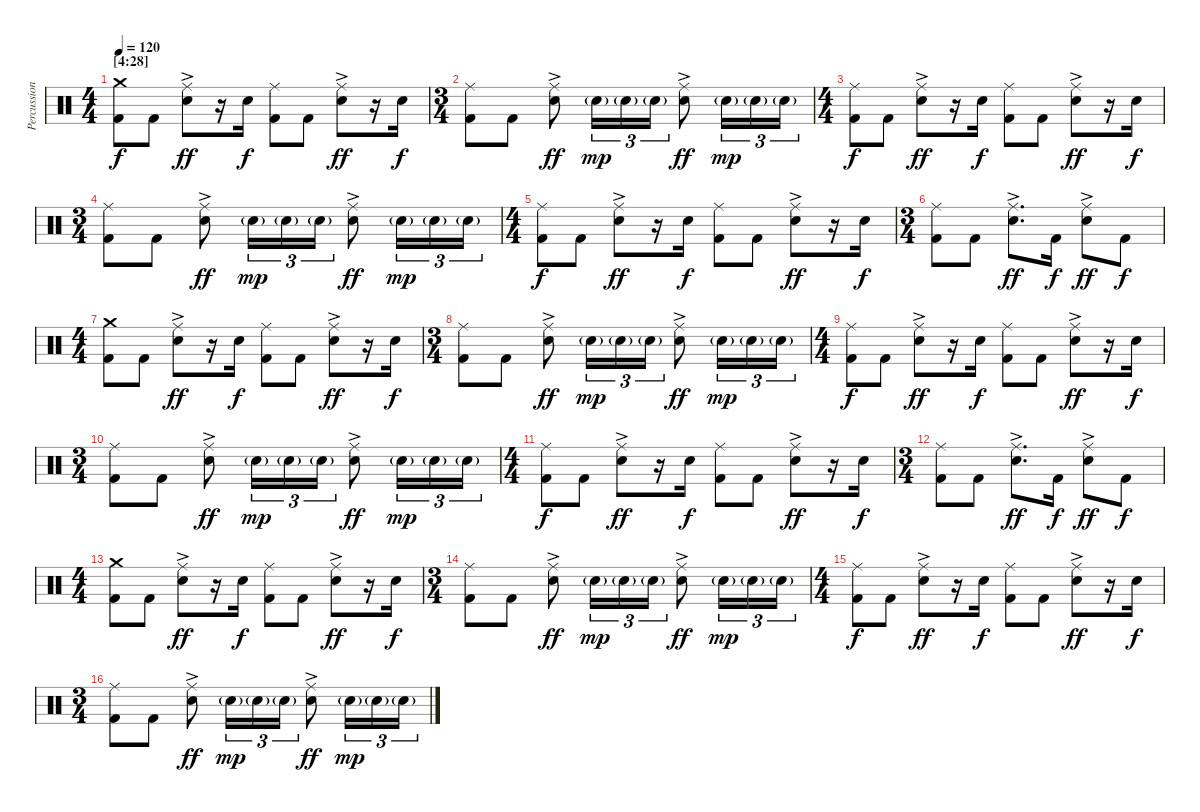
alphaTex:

\track ("Percussion" "Percussion") {instrument percussion}
\staff {score}
\articulation defaults
\ts (4 4)
\section ("" "[4:28]")
\tempo 120
\clef neutral
\ks c
("Crash medium (hit)" "Kick (hit) 2").8{dy f volume 8} "Kick (hit) 2".8 ("Ride (middle)" "Electric Snare (hit)"{ac}).8{dy ff} r.16 "Electric Snare (hit)".16{dy f} ("Ride (middle)" "Kick (hit) 2").8 "Kick (hit) 2".8 ("Ride (middle)" "Electric Snare (hit)"{ac}).8{dy ff} r.16 "Electric Snare (hit)".16{dy f} |
\ts (3 4)
("Ride (middle)" "Kick (hit) 2").8 "Kick (hit) 2".8 ("Ride (middle)" "Electric Snare (hit)"{ac}).8{dy ff} "Electric Snare (hit)"{g}.16{tu (3 2) dy mp} "Electric Snare (hit)"{g}.16{tu (3 2)} "Electric Snare (hit)"{g}.16{tu (3 2)} ("Ride (middle)" "Electric Snare (hit)"{ac}).8{dy ff} "Electric Snare (hit)"{g}.16{tu (3 2) dy mp} "Electric Snare (hit)"{g}.16{tu (3 2)} "Electric Snare (hit)"{g}.16{tu (3 2)} |
\ts (4 4)
("Ride (middle)" "Kick (hit) 2").8{dy f} "Kick (hit) 2".8 ("Ride (middle)" "Electric Snare (hit)"{ac}).8{dy ff} r.16 "Electric Snare (hit)".16{dy f} ("Ride (middle)" "Kick (hit) 2").8 "Kick (hit) 2".8 ("Ride (middle)" "Electric Snare (hit)"{ac}).8{dy ff} r.16 "Electric Snare (hit)".16{dy f} |
\ts (3 4)
("Ride (middle)" "Kick (hit) 2").8 "Kick (hit) 2".8 ("Ride (middle)" "Electric Snare (hit)"{ac}).8{dy ff} "Electric Snare (hit)"{g}.16{tu (3 2) dy mp} "Electric Snare (hit)"{g}.16{tu (3 2)} "Electric Snare (hit)"{g}.16{tu (3 2)} ("Ride (middle)" "Electric Snare (hit)"{ac}).8{dy ff} "Electric Snare (hit)"{g}.16{tu (3 2) dy mp} "Electric Snare (hit)"{g}.16{tu (3 2)} "Electric Snare (hit)"{g}.16{tu (3 2)} |
\ts (4 4)
("Ride (middle)" "Kick (hit) 2").8{dy f} "Kick (hit) 2".8 ("Ride (middle)" "Electric Snare (hit)"{ac}).8{dy ff} r.16 "Electric Snare (hit)".16{dy f} ("Ride (middle)" "Kick (hit) 2").8 "Kick (hit) 2".8 ("Ride (middle)" "Electric Snare (hit)"{ac}).8{dy ff} r.16 "Electric Snare (hit)".16{dy f} |
\ts (3 4)
("Ride (middle)" "Kick (hit) 2").8 "Kick (hit) 2".8 ("Ride (middle)" "Electric Snare (hit)"{ac}).8{d dy ff} "Kick (hit) 2".16{dy f} ("Ride (middle)" "Electric Snare (hit)"{ac}).8{dy ff} "Kick (hit) 2".8{dy f} |
\ts (4 4)
("Crash medium (hit)" "Kick (hit) 2").8 "Kick (hit) 2".8 ("Ride (middle)" "Electric Snare (hit)"{ac}).8{dy ff} r.16 "Electric Snare (hit)".16{dy f} ("Ride (middle)" "Kick (hit) 2").8 "Kick (hit) 2".8 ("Ride (middle)" "Electric Snare (hit)"{ac}).8{dy ff} r.16 "Electric Snare (hit)".16{dy f} |
\ts (3 4)
("Ride (middle)" "Kick (hit) 2").8 "Kick (hit) 2".8 ("Ride (middle)" "Electric Snare (hit)"{ac}).8{dy ff} "Electric Snare (hit)"{g}.16{tu (3 2) dy mp} "Electric Snare (hit)"{g}.16{tu (3 2)} "Electric Snare (hit)"{g}.16{tu (3 2)} ("Ride (middle)" "Electric Snare (hit)"{ac}).8{dy ff} "Electric Snare (hit)"{g}.16{tu (3 2) dy mp} "Electric Snare (hit)"{g}.16{tu (3 2)} "Electric Snare (hit)"{g}.16{tu (3 2)} |
\ts (4 4)
("Ride (middle)" "Kick (hit) 2").8{dy f} "Kick (hit) 2".8 ("Ride (middle)" "Electric Snare (hit)"{ac}).8{dy ff} r.16 "Electric Snare (hit)".16{dy f} ("Ride (middle)" "Kick (hit) 2").8 "Kick (hit) 2".8 ("Ride (middle)" "Electric Snare (hit)"{ac}).8{dy ff} r.16 "Electric Snare (hit)".16{dy f} |
\ts (3 4)
("Ride (middle)" "Kick (hit) 2").8 "Kick (hit) 2".8 ("Ride (middle)" "Electric Snare (hit)"{ac}).8{dy ff} "Electric Snare (hit)"{g}.16{tu (3 2) dy mp} "Electric Snare (hit)"{g}.16{tu (3 2)} "Electric Snare (hit)"{g}.16{tu (3 2)} ("Ride (middle)" "Electric Snare (hit)"{ac}).8{dy ff} "Electric Snare (hit)"{g}.16{tu (3 2) dy mp} "Electric Snare (hit)"{g}.16{tu (3 2)} "Electric Snare (hit)"{g}.16{tu (3 2)} |
\ts (4 4)
("Ride (middle)" "Kick (hit) 2").8{dy f} "Kick (hit) 2".8 ("Ride (middle)" "Electric Snare (hit)"{ac}).8{dy ff} r.16 "Electric Snare (hit)".16{dy f} ("Ride (middle)" "Kick (hit) 2").8 "Kick (hit) 2".8 ("Ride (middle)" "Electric Snare (hit)"{ac}).8{dy ff} r.16 "Electric Snare (hit)".16{dy f} |
\ts (3 4)
("Ride (middle)" "Kick (hit) 2").8 "Kick (hit) 2".8 ("Ride (middle)" "Electric Snare (hit)"{ac}).8{d dy ff} "Kick (hit) 2".16{dy f} ("Ride (middle)" "Electric Snare (hit)"{ac}).8{dy ff} "Kick (hit) 2".8{dy f} |
\ts (4 4)
("Crash medium (hit)" "Kick (hit) 2").8 "Kick (hit) 2".8 ("Ride (middle)" "Electric Snare (hit)"{ac}).8{dy ff} r.16 "Electric Snare (hit)".16{dy f} ("Ride (middle)" "Kick (hit) 2").8 "Kick (hit) 2".8 ("Ride (middle)" "Electric Snare (hit)"{ac}).8{dy ff} r.16 "Electric Snare (hit)".16{dy f} |
\ts (3 4)
("Ride (middle)" "Kick (hit) 2").8 "Kick (hit) 2".8 ("Ride (middle)" "Electric Snare (hit)"{ac}).8{dy ff} "Electric Snare (hit)"{g}.16{tu (3 2) dy mp} "Electric Snare (hit)"{g}.16{tu (3 2)} "Electric Snare (hit)"{g}.16{tu (3 2)} ("Ride (middle)" "Electric Snare (hit)"{ac}).8{dy ff} "Electric Snare (hit)"{g}.16{tu (3 2) dy mp} "Electric Snare (hit)"{g}.16{tu (3 2)} "Electric Snare (hit)"{g}.16{tu (3 2)} |
\ts (4 4)
("Ride (middle)" "Kick (hit) 2").8{dy f} "Kick (hit) 2".8 ("Ride (middle)" "Electric Snare (hit)"{ac}).8{dy ff} r.16 "Electric Snare (hit)".16{dy f} ("Ride (middle)" "Kick (hit) 2").8 "Kick (hit) 2".8 ("Ride (middle)" "Electric Snare (hit)"{ac}).8{dy ff} r.16 "Electric Snare (hit)".16{dy f} |
\ts (3 4)
("Ride (middle)" "Kick (hit) 2").8 "Kick (hit) 2".8 ("Ride (middle)" "Electric Snare (hit)"{ac}).8{dy ff} "Electric Snare (hit)"{g}.16{tu (3 2) dy mp} "Electric Snare (hit)"{g}.16{tu (3 2)} "Electric Snare (hit)"{g}.16{tu (3 2)} ("Ride (middle)" "Electric Snare (hit)"{ac}).8{dy ff} "Electric Snare (hit)"{g}.16{tu (3 2) dy mp} "Electric Snare (hit)"{g}.16{tu (3 2)} "Electric Snare (hit)"{g}.16{tu (3 2)}
